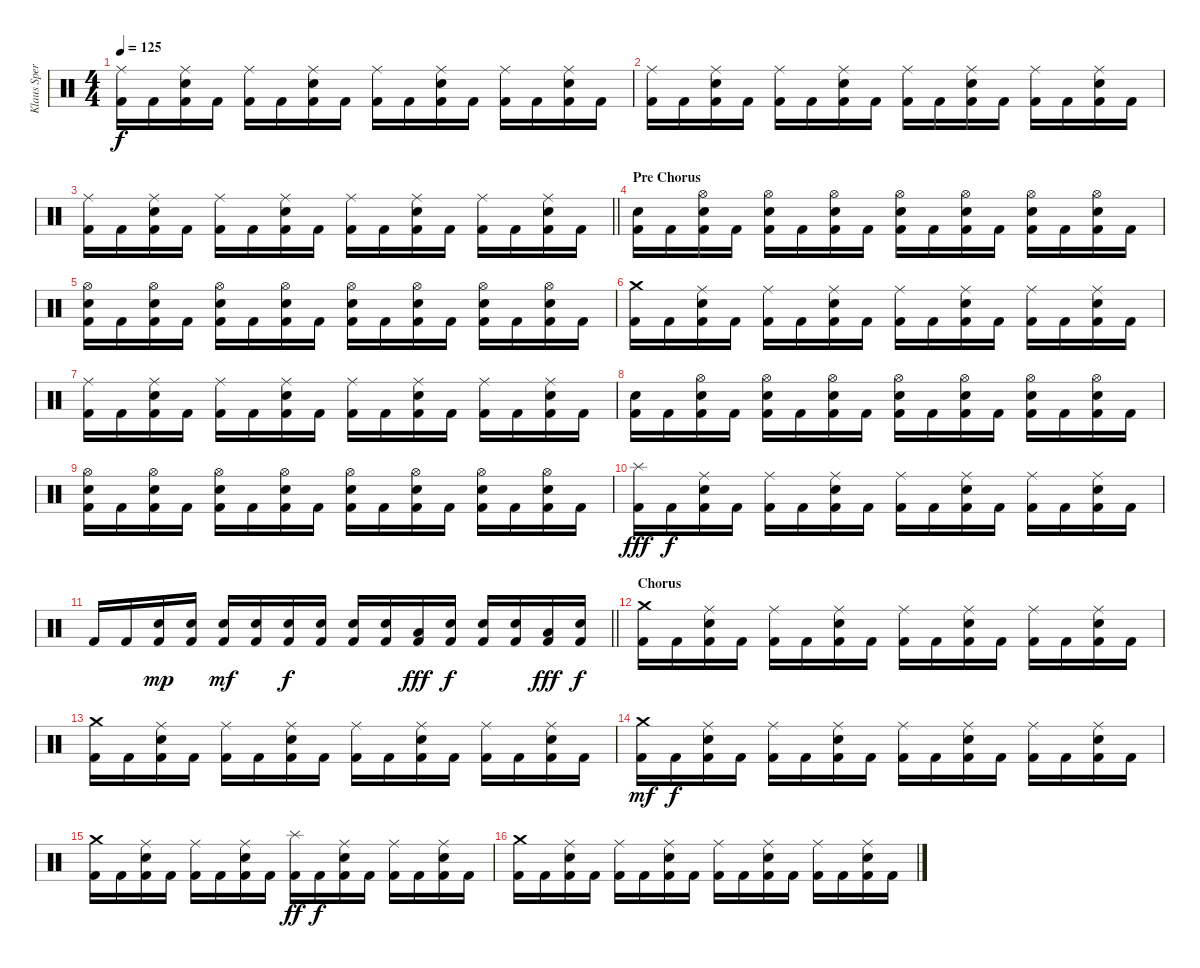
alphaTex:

\track ("Klaus Sperling" "Klaus Sper") {instrument percussion}
\staff {score}
\articulation defaults
\ts (4 4)
\tempo 125
\clef neutral
\ks c
("Ride (middle)" "Kick (hit) 2").16{dy f} "Kick (hit) 2".16 ("Ride (middle)" "Electric Snare (hit)" "Kick (hit) 2").16 "Kick (hit) 2".16 ("Ride (middle)" "Kick (hit) 2").16 "Kick (hit) 2".16 ("Ride (middle)" "Electric Snare (hit)" "Kick (hit) 2").16 "Kick (hit) 2".16 ("Ride (middle)" "Kick (hit) 2").16 "Kick (hit) 2".16 ("Ride (middle)" "Electric Snare (hit)" "Kick (hit) 2").16 "Kick (hit) 2".16 ("Ride (middle)" "Kick (hit) 2").16 "Kick (hit) 2".16 ("Ride (middle)" "Electric Snare (hit)" "Kick (hit) 2").16 "Kick (hit) 2".16 |
("Ride (middle)" "Kick (hit) 2").16 "Kick (hit) 2".16 ("Ride (middle)" "Electric Snare (hit)" "Kick (hit) 2").16 "Kick (hit) 2".16 ("Ride (middle)" "Kick (hit) 2").16 "Kick (hit) 2".16 ("Ride (middle)" "Electric Snare (hit)" "Kick (hit) 2").16 "Kick (hit) 2".16 ("Ride (middle)" "Kick (hit) 2").16 "Kick (hit) 2".16 ("Ride (middle)" "Electric Snare (hit)" "Kick (hit) 2").16 "Kick (hit) 2".16 ("Ride (middle)" "Kick (hit) 2").16 "Kick (hit) 2".16 ("Ride (middle)" "Electric Snare (hit)" "Kick (hit) 2").16 "Kick (hit) 2".16 |
\barLineRight lightlight
("Ride (middle)" "Kick (hit) 2").16 "Kick (hit) 2".16 ("Ride (middle)" "Electric Snare (hit)" "Kick (hit) 2").16 "Kick (hit) 2".16 ("Ride (middle)" "Kick (hit) 2").16 "Kick (hit) 2".16 ("Ride (middle)" "Electric Snare (hit)" "Kick (hit) 2").16 "Kick (hit) 2".16 ("Ride (middle)" "Kick (hit) 2").16 "Kick (hit) 2".16 ("Ride (middle)" "Electric Snare (hit)" "Kick (hit) 2").16 "Kick (hit) 2".16 ("Ride (middle)" "Kick (hit) 2").16 "Kick (hit) 2".16 ("Ride (middle)" "Electric Snare (hit)" "Kick (hit) 2").16 "Kick (hit) 2".16 |
\section ("" "Pre Chorus")
("Electric Snare (hit)" "Kick (hit) 2").16 "Kick (hit) 2".16 ("Hi-Hat (open)" "Electric Snare (hit)" "Kick (hit) 2").16 "Kick (hit) 2".16 ("Hi-Hat (open)" "Electric Snare (hit)" "Kick (hit) 2").16 "Kick (hit) 2".16 ("Hi-Hat (open)" "Electric Snare (hit)" "Kick (hit) 2").16 "Kick (hit) 2".16 ("Hi-Hat (open)" "Electric Snare (hit)" "Kick (hit) 2").16 "Kick (hit) 2".16 ("Hi-Hat (open)" "Electric Snare (hit)" "Kick (hit) 2").16 "Kick (hit) 2".16 ("Hi-Hat (open)" "Electric Snare (hit)" "Kick (hit) 2").16 "Kick (hit) 2".16 ("Hi-Hat (open)" "Electric Snare (hit)" "Kick (hit) 2").16 "Kick (hit) 2".16 |
("Hi-Hat (open)" "Electric Snare (hit)" "Kick (hit) 2").16 "Kick (hit) 2".16 ("Hi-Hat (open)" "Electric Snare (hit)" "Kick (hit) 2").16 "Kick (hit) 2".16 ("Hi-Hat (open)" "Electric Snare (hit)" "Kick (hit) 2").16 "Kick (hit) 2".16 ("Hi-Hat (open)" "Electric Snare (hit)" "Kick (hit) 2").16 "Kick (hit) 2".16 ("Hi-Hat (open)" "Electric Snare (hit)" "Kick (hit) 2").16 "Kick (hit) 2".16 ("Hi-Hat (open)" "Electric Snare (hit)" "Kick (hit) 2").16 "Kick (hit) 2".16 ("Hi-Hat (open)" "Electric Snare (hit)" "Kick (hit) 2").16 "Kick (hit) 2".16 ("Hi-Hat (open)" "Electric Snare (hit)" "Kick (hit) 2").16 "Kick (hit) 2".16 |
("Crash medium (hit)" "Kick (hit) 2").16 "Kick (hit) 2".16 ("Ride (middle)" "Electric Snare (hit)" "Kick (hit) 2").16 "Kick (hit) 2".16 ("Ride (middle)" "Kick (hit) 2").16 "Kick (hit) 2".16 ("Ride (middle)" "Electric Snare (hit)" "Kick (hit) 2").16 "Kick (hit) 2".16 ("Ride (middle)" "Kick (hit) 2").16 "Kick (hit) 2".16 ("Ride (middle)" "Electric Snare (hit)" "Kick (hit) 2").16 "Kick (hit) 2".16 ("Ride (middle)" "Kick (hit) 2").16 "Kick (hit) 2".16 ("Ride (middle)" "Electric Snare (hit)" "Kick (hit) 2").16 "Kick (hit) 2".16 |
("Ride (middle)" "Kick (hit) 2").16 "Kick (hit) 2".16 ("Ride (middle)" "Electric Snare (hit)" "Kick (hit) 2").16 "Kick (hit) 2".16 ("Ride (middle)" "Kick (hit) 2").16 "Kick (hit) 2".16 ("Ride (middle)" "Electric Snare (hit)" "Kick (hit) 2").16 "Kick (hit) 2".16 ("Ride (middle)" "Kick (hit) 2").16 "Kick (hit) 2".16 ("Ride (middle)" "Electric Snare (hit)" "Kick (hit) 2").16 "Kick (hit) 2".16 ("Ride (middle)" "Kick (hit) 2").16 "Kick (hit) 2".16 ("Ride (middle)" "Electric Snare (hit)" "Kick (hit) 2").16 "Kick (hit) 2".16 |
("Electric Snare (hit)" "Kick (hit) 2").16 "Kick (hit) 2".16 ("Hi-Hat (open)" "Electric Snare (hit)" "Kick (hit) 2").16 "Kick (hit) 2".16 ("Hi-Hat (open)" "Electric Snare (hit)" "Kick (hit) 2").16 "Kick (hit) 2".16 ("Hi-Hat (open)" "Electric Snare (hit)" "Kick (hit) 2").16 "Kick (hit) 2".16 ("Hi-Hat (open)" "Electric Snare (hit)" "Kick (hit) 2").16 "Kick (hit) 2".16 ("Hi-Hat (open)" "Electric Snare (hit)" "Kick (hit) 2").16 "Kick (hit) 2".16 ("Hi-Hat (open)" "Electric Snare (hit)" "Kick (hit) 2").16 "Kick (hit) 2".16 ("Hi-Hat (open)" "Electric Snare (hit)" "Kick (hit) 2").16 "Kick (hit) 2".16 |
("Hi-Hat (open)" "Electric Snare (hit)" "Kick (hit) 2").16 "Kick (hit) 2".16 ("Hi-Hat (open)" "Electric Snare (hit)" "Kick (hit) 2").16 "Kick (hit) 2".16 ("Hi-Hat (open)" "Electric Snare (hit)" "Kick (hit) 2").16 "Kick (hit) 2".16 ("Hi-Hat (open)" "Electric Snare (hit)" "Kick (hit) 2").16 "Kick (hit) 2".16 ("Hi-Hat (open)" "Electric Snare (hit)" "Kick (hit) 2").16 "Kick (hit) 2".16 ("Hi-Hat (open)" "Electric Snare (hit)" "Kick (hit) 2").16 "Kick (hit) 2".16 ("Hi-Hat (open)" "Electric Snare (hit)" "Kick (hit) 2").16 "Kick (hit) 2".16 ("Hi-Hat (open)" "Electric Snare (hit)" "Kick (hit) 2").16 "Kick (hit) 2".16 |
("Splash (hit)" "Kick (hit) 2").16{dy fff} "Kick (hit) 2".16{dy f} ("Ride (middle)" "Electric Snare (hit)" "Kick (hit) 2").16 "Kick (hit) 2".16 ("Ride (middle)" "Kick (hit) 2").16 "Kick (hit) 2".16 ("Ride (middle)" "Electric Snare (hit)" "Kick (hit) 2").16 "Kick (hit) 2".16 ("Ride (middle)" "Kick (hit) 2").16 "Kick (hit) 2".16 ("Ride (middle)" "Electric Snare (hit)" "Kick (hit) 2").16 "Kick (hit) 2".16 ("Ride (middle)" "Kick (hit) 2").16 "Kick (hit) 2".16 ("Ride (middle)" "Electric Snare (hit)" "Kick (hit) 2").16 "Kick (hit) 2".16 |
\barLineRight lightlight "Kick (hit) 2".16 "Kick (hit) 2".16
("Electric Snare (hit)" "Kick (hit) 2").16{dy mp} ("Electric Snare (hit)" "Kick (hit) 2").16 ("Electric Snare (hit)" "Kick (hit) 2").16{dy mf} ("Electric Snare (hit)" "Kick (hit) 2").16 ("Electric Snare (hit)" "Kick (hit) 2").16{dy f} ("Electric Snare (hit)" "Kick (hit) 2").16 ("Electric Snare (hit)" "Kick (hit) 2").16 ("Electric Snare (hit)" "Kick (hit) 2").16 ("Low Tom (hit)" "Kick (hit) 2").16{dy fff} ("Electric Snare (hit)" "Kick (hit) 2").16{dy f} ("Electric Snare (hit)" "Kick (hit) 2").16 ("Electric Snare (hit)" "Kick (hit) 2").16 ("Low Tom (hit)" "Kick (hit) 2").16{dy fff} ("Electric Snare (hit)" "Kick (hit) 2").16{dy f} |
\section ("" "Chorus")
("Crash medium (hit)" "Kick (hit) 2").16 "Kick (hit) 2".16 ("Ride (middle)" "Electric Snare (hit)" "Kick (hit) 2").16 "Kick (hit) 2".16 ("Ride (middle)" "Kick (hit) 2").16 "Kick (hit) 2".16 ("Ride (middle)" "Electric Snare (hit)" "Kick (hit) 2").16 "Kick (hit) 2".16 ("Ride (middle)" "Kick (hit) 2").16 "Kick (hit) 2".16 ("Ride (middle)" "Electric Snare (hit)" "Kick (hit) 2").16 "Kick (hit) 2".16 ("Ride (middle)" "Kick (hit) 2").16 "Kick (hit) 2".16 ("Ride (middle)" "Electric Snare (hit)" "Kick (hit) 2").16 "Kick (hit) 2".16 |
("Crash medium (hit)" "Kick (hit) 2").16 "Kick (hit) 2".16 ("Ride (middle)" "Electric Snare (hit)" "Kick (hit) 2").16 "Kick (hit) 2".16 ("Ride (middle)" "Kick (hit) 2").16 "Kick (hit) 2".16 ("Ride (middle)" "Electric Snare (hit)" "Kick (hit) 2").16 "Kick (hit) 2".16 ("Ride (middle)" "Kick (hit) 2").16 "Kick (hit) 2".16 ("Ride (middle)" "Electric Snare (hit)" "Kick (hit) 2").16 "Kick (hit) 2".16 ("Ride (middle)" "Kick (hit) 2").16 "Kick (hit) 2".16 ("Ride (middle)" "Electric Snare (hit)" "Kick (hit) 2").16 "Kick (hit) 2".16 |
("Crash medium (hit)" "Kick (hit) 2").16{dy mf} "Kick (hit) 2".16{dy f} ("Ride (middle)" "Electric Snare (hit)" "Kick (hit) 2").16 "Kick (hit) 2".16 ("Ride (middle)" "Kick (hit) 2").16 "Kick (hit) 2".16 ("Ride (middle)" "Electric Snare (hit)" "Kick (hit) 2").16 "Kick (hit) 2".16 ("Ride (middle)" "Kick (hit) 2").16 "Kick (hit) 2".16 ("Ride (middle)" "Electric Snare (hit)" "Kick (hit) 2").16 "Kick (hit) 2".16 ("Ride (middle)" "Kick (hit) 2").16 "Kick (hit) 2".16 ("Ride (middle)" "Electric Snare (hit)" "Kick (hit) 2").16 "Kick (hit) 2".16 |
("Crash medium (hit)" "Kick (hit) 2").16 "Kick (hit) 2".16 ("Ride (middle)" "Electric Snare (hit)" "Kick (hit) 2").16 "Kick (hit) 2".16 ("Ride (middle)" "Kick (hit) 2").16 "Kick (hit) 2".16 ("Ride (middle)" "Electric Snare (hit)" "Kick (hit) 2").16 "Kick (hit) 2".16 ("Splash (hit)" "Kick (hit) 2").16{dy ff} "Kick (hit) 2".16{dy f} ("Ride (middle)" "Electric Snare (hit)" "Kick (hit) 2").16 "Kick (hit) 2".16 ("Ride (middle)" "Kick (hit) 2").16 "Kick (hit) 2".16 ("Ride (middle)" "Electric Snare (hit)" "Kick (hit) 2").16 "Kick (hit) 2".16 |
("Crash medium (hit)" "Kick (hit) 2").16 "Kick (hit) 2".16 ("Ride (middle)" "Electric Snare (hit)" "Kick (hit) 2").16 "Kick (hit) 2".16 ("Ride (middle)" "Kick (hit) 2").16 "Kick (hit) 2".16 ("Ride (middle)" "Electric Snare (hit)" "Kick (hit) 2").16 "Kick (hit) 2".16 ("Ride (middle)" "Kick (hit) 2").16 "Kick (hit) 2".16 ("Ride (middle)" "Electric Snare (hit)" "Kick (hit) 2").16 "Kick (hit) 2".16 ("Ride (middle)" "Kick (hit) 2").16 "Kick (hit) 2".16 ("Ride (middle)" "Electric Snare (hit)" "Kick (hit) 2").16 "Kick (hit) 2".16
